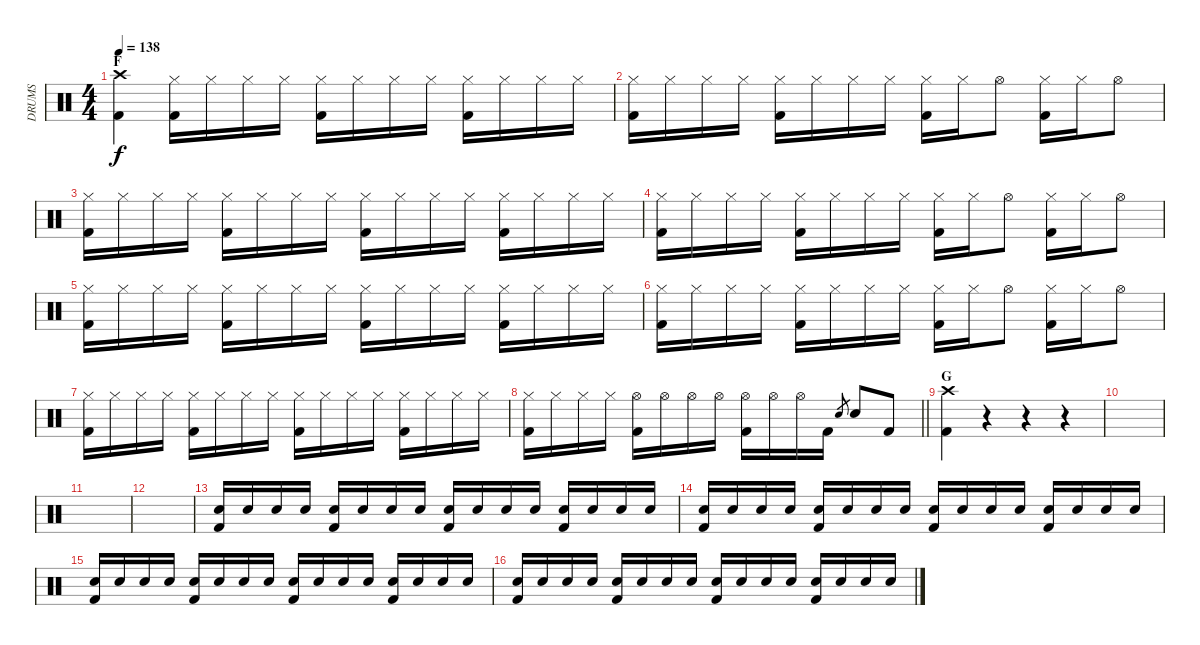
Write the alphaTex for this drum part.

\track ("DRUMS" "DRUMS") {instrument percussion}
\staff {score}
\articulation defaults
\ts (4 4)
\section ("" "F")
\tempo 138
\clef neutral
\ks c
("Crash high (hit)" "Kick (hit) 2").4{dy f} ("Hi-Hat (closed)" "Kick (hit) 2").16 "Hi-Hat (closed)".16 "Hi-Hat (closed)".16 "Hi-Hat (closed)".16 ("Hi-Hat (closed)" "Kick (hit) 2").16 "Hi-Hat (closed)".16 "Hi-Hat (closed)".16 "Hi-Hat (closed)".16 ("Hi-Hat (closed)" "Kick (hit) 2").16 "Hi-Hat (closed)".16 "Hi-Hat (closed)".16 "Hi-Hat (closed)".16 |
("Hi-Hat (closed)" "Kick (hit) 2").16 "Hi-Hat (closed)".16 "Hi-Hat (closed)".16 "Hi-Hat (closed)".16 ("Hi-Hat (closed)" "Kick (hit) 2").16 "Hi-Hat (closed)".16 "Hi-Hat (closed)".16 "Hi-Hat (closed)".16 ("Hi-Hat (closed)" "Kick (hit) 2").16 "Hi-Hat (closed)".16 "Hi-Hat (open)".8 ("Hi-Hat (closed)" "Kick (hit) 2").16 "Hi-Hat (closed)".16 "Hi-Hat (open)".8 |
("Hi-Hat (closed)" "Kick (hit) 2").16 "Hi-Hat (closed)".16 "Hi-Hat (closed)".16 "Hi-Hat (closed)".16 ("Hi-Hat (closed)" "Kick (hit) 2").16 "Hi-Hat (closed)".16 "Hi-Hat (closed)".16 "Hi-Hat (closed)".16 ("Hi-Hat (closed)" "Kick (hit) 2").16 "Hi-Hat (closed)".16 "Hi-Hat (closed)".16 "Hi-Hat (closed)".16 ("Hi-Hat (closed)" "Kick (hit) 2").16 "Hi-Hat (closed)".16 "Hi-Hat (closed)".16 "Hi-Hat (closed)".16 |
("Hi-Hat (closed)" "Kick (hit) 2").16 "Hi-Hat (closed)".16 "Hi-Hat (closed)".16 "Hi-Hat (closed)".16 ("Hi-Hat (closed)" "Kick (hit) 2").16 "Hi-Hat (closed)".16 "Hi-Hat (closed)".16 "Hi-Hat (closed)".16 ("Hi-Hat (closed)" "Kick (hit) 2").16 "Hi-Hat (closed)".16 "Hi-Hat (open)".8 ("Hi-Hat (closed)" "Kick (hit) 2").16 "Hi-Hat (closed)".16 "Hi-Hat (open)".8 |
("Hi-Hat (closed)" "Kick (hit) 2").16 "Hi-Hat (closed)".16 "Hi-Hat (closed)".16 "Hi-Hat (closed)".16 ("Hi-Hat (closed)" "Kick (hit) 2").16 "Hi-Hat (closed)".16 "Hi-Hat (closed)".16 "Hi-Hat (closed)".16 ("Hi-Hat (closed)" "Kick (hit) 2").16 "Hi-Hat (closed)".16 "Hi-Hat (closed)".16 "Hi-Hat (closed)".16 ("Hi-Hat (closed)" "Kick (hit) 2").16 "Hi-Hat (closed)".16 "Hi-Hat (closed)".16 "Hi-Hat (closed)".16 |
("Hi-Hat (closed)" "Kick (hit) 2").16 "Hi-Hat (closed)".16 "Hi-Hat (closed)".16 "Hi-Hat (closed)".16 ("Hi-Hat (closed)" "Kick (hit) 2").16 "Hi-Hat (closed)".16 "Hi-Hat (closed)".16 "Hi-Hat (closed)".16 ("Hi-Hat (closed)" "Kick (hit) 2").16 "Hi-Hat (closed)".16 "Hi-Hat (open)".8 ("Hi-Hat (closed)" "Kick (hit) 2").16 "Hi-Hat (closed)".16 "Hi-Hat (open)".8 |
("Hi-Hat (closed)" "Kick (hit) 2").16 "Hi-Hat (closed)".16 "Hi-Hat (closed)".16 "Hi-Hat (closed)".16 ("Hi-Hat (closed)" "Kick (hit) 2").16 "Hi-Hat (closed)".16 "Hi-Hat (closed)".16 "Hi-Hat (closed)".16 ("Hi-Hat (closed)" "Kick (hit) 2").16 "Hi-Hat (closed)".16 "Hi-Hat (closed)".16 "Hi-Hat (closed)".16 ("Hi-Hat (closed)" "Kick (hit) 2").16 "Hi-Hat (closed)".16 "Hi-Hat (closed)".16 "Hi-Hat (closed)".16 |
\barLineRight lightlight
("Hi-Hat (closed)" "Kick (hit) 2").16 "Hi-Hat (closed)".16 "Hi-Hat (closed)".16 "Hi-Hat (closed)".16 ("Hi-Hat (open)" "Kick (hit) 2").16 "Hi-Hat (open)".16 "Hi-Hat (open)".16 "Hi-Hat (open)".16 ("Hi-Hat (open)" "Kick (hit) 2").16 "Hi-Hat (open)".16 "Hi-Hat (open)".16 "Kick (hit) 2".16 "Snare (hit) 2".8{gr} "Snare (hit) 2".8 "Kick (hit) 2".8 |
\section ("" "G")
("Crash high (hit)" "Kick (hit) 2").4 r.4 r.4 r.4 |
|
|
|
("Snare (hit) 2" "Kick (hit) 2").16 "Snare (hit) 2".16 "Snare (hit) 2".16 "Snare (hit) 2".16 ("Snare (hit) 2" "Kick (hit) 2").16 "Snare (hit) 2".16 "Snare (hit) 2".16 "Snare (hit) 2".16 ("Snare (hit) 2" "Kick (hit) 2").16 "Snare (hit) 2".16 "Snare (hit) 2".16 "Snare (hit) 2".16 ("Snare (hit) 2" "Kick (hit) 2").16 "Snare (hit) 2".16 "Snare (hit) 2".16 "Snare (hit) 2".16 |
("Snare (hit) 2" "Kick (hit) 2").16 "Snare (hit) 2".16 "Snare (hit) 2".16 "Snare (hit) 2".16 ("Snare (hit) 2" "Kick (hit) 2").16 "Snare (hit) 2".16 "Snare (hit) 2".16 "Snare (hit) 2".16 ("Snare (hit) 2" "Kick (hit) 2").16 "Snare (hit) 2".16 "Snare (hit) 2".16 "Snare (hit) 2".16 ("Snare (hit) 2" "Kick (hit) 2").16 "Snare (hit) 2".16 "Snare (hit) 2".16 "Snare (hit) 2".16 |
("Snare (hit) 2" "Kick (hit) 2").16 "Snare (hit) 2".16 "Snare (hit) 2".16 "Snare (hit) 2".16 ("Snare (hit) 2" "Kick (hit) 2").16 "Snare (hit) 2".16 "Snare (hit) 2".16 "Snare (hit) 2".16 ("Snare (hit) 2" "Kick (hit) 2").16 "Snare (hit) 2".16 "Snare (hit) 2".16 "Snare (hit) 2".16 ("Snare (hit) 2" "Kick (hit) 2").16 "Snare (hit) 2".16 "Snare (hit) 2".16 "Snare (hit) 2".16 |
("Snare (hit) 2" "Kick (hit) 2").16 "Snare (hit) 2".16 "Snare (hit) 2".16 "Snare (hit) 2".16 ("Snare (hit) 2" "Kick (hit) 2").16 "Snare (hit) 2".16 "Snare (hit) 2".16 "Snare (hit) 2".16 ("Snare (hit) 2" "Kick (hit) 2").16 "Snare (hit) 2".16 "Snare (hit) 2".16 "Snare (hit) 2".16 ("Snare (hit) 2" "Kick (hit) 2").16 "Snare (hit) 2".16 "Snare (hit) 2".16 "Snare (hit) 2".16
